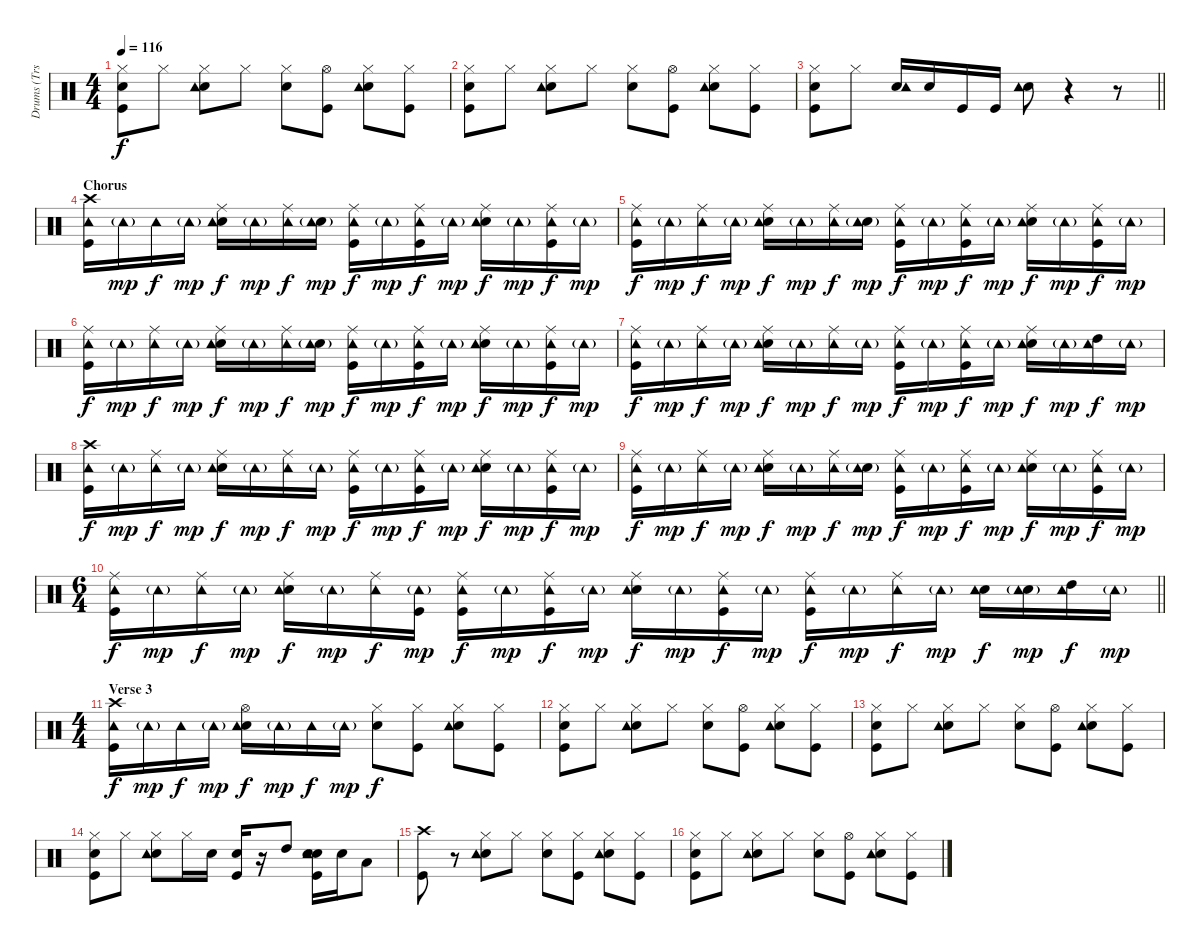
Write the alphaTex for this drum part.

\track ("Drums (Trs. 7-8A, 10A/7-8B, 10B, 12-13B)" "Drums (Trs") {mute instrument percussion}
\staff {score}
\articulation defaults
\ts (4 4)
\tempo 116
\clef neutral
\ks c
("Hi-Hat (closed)" "Electric Snare (hit)" "Kick (hit)").8{dy f} "Hi-Hat (closed)".8 ("Hi-Hat (closed)" "Electric Snare (hit)" "Tambourine (hit)").8 "Hi-Hat (closed)".8 ("Electric Snare (hit)" "Hi-Hat (closed)").8 ("Kick (hit)" "Hi-Hat (open)").8 ("Electric Snare (hit)" "Hi-Hat (closed)" "Tambourine (hit)").8 ("Kick (hit)" "Hi-Hat (closed)").8 |
("Hi-Hat (closed)" "Electric Snare (hit)" "Kick (hit)").8 "Hi-Hat (closed)".8 ("Electric Snare (hit)" "Hi-Hat (closed)" "Tambourine (hit)").8 "Hi-Hat (closed)".8 ("Hi-Hat (closed)" "Electric Snare (hit)").8 ("Hi-Hat (open)" "Kick (hit)").8 ("Electric Snare (hit)" "Hi-Hat (closed)" "Tambourine (hit)").8 ("Kick (hit)" "Hi-Hat (closed)").8 |
\barLineRight lightlight
("Hi-Hat (closed)" "Electric Snare (hit)" "Kick (hit)").8 "Hi-Hat (closed)".8 ("Electric Snare (hit)" "Tambourine (hit)").16 "Electric Snare (hit)".16 "Kick (hit)".16 "Kick (hit)".16 ("Electric Snare (hit)" "Tambourine (hit)").8 r.4 r.8 |
\section ("" "Chorus")
("Kick (hit)" "Crash high (hit)" "Tambourine (hit)").16 "Tambourine (hit)"{g}.16{dy mp} "Tambourine (hit)".16{dy f} "Tambourine (hit)"{g}.16{dy mp} ("Ride (middle)" "Electric Snare (hit)" "Tambourine (hit)").16{dy f} "Tambourine (hit)"{g}.16{dy mp} ("Ride (middle)" "Tambourine (hit)").16{dy f} ("Electric Snare (hit)" "Tambourine (hit)"{g}).16{dy mp} ("Ride (middle)" "Kick (hit)" "Tambourine (hit)").16{dy f} "Tambourine (hit)"{g}.16{dy mp} ("Kick (hit)" "Ride (middle)" "Tambourine (hit)").16{dy f} "Tambourine (hit)"{g}.16{dy mp} ("Electric Snare (hit)" "Ride (middle)" "Tambourine (hit)").16{dy f} "Tambourine (hit)"{g}.16{dy mp} ("Ride (middle)" "Kick (hit)" "Tambourine (hit)").16{dy f} "Tambourine (hit)"{g}.16{dy mp} |
("Kick (hit)" "Ride (middle)" "Tambourine (hit)").16{dy f} "Tambourine (hit)"{g}.16{dy mp} ("Ride (middle)" "Tambourine (hit)").16{dy f} "Tambourine (hit)"{g}.16{dy mp} ("Electric Snare (hit)" "Ride (middle)" "Tambourine (hit)").16{dy f} "Tambourine (hit)"{g}.16{dy mp} ("Ride (middle)" "Tambourine (hit)").16{dy f} ("Electric Snare (hit)" "Tambourine (hit)"{g}).16{dy mp} ("Ride (middle)" "Kick (hit)" "Tambourine (hit)").16{dy f} "Tambourine (hit)"{g}.16{dy mp} ("Ride (middle)" "Kick (hit)" "Tambourine (hit)").16{dy f} "Tambourine (hit)"{g}.16{dy mp} ("Ride (middle)" "Electric Snare (hit)" "Tambourine (hit)").16{dy f} "Tambourine (hit)"{g}.16{dy mp} ("Kick (hit)" "Ride (middle)" "Tambourine (hit)").16{dy f} "Tambourine (hit)"{g}.16{dy mp} |
("Kick (hit)" "Ride (middle)" "Tambourine (hit)").16{dy f} "Tambourine (hit)"{g}.16{dy mp} ("Ride (middle)" "Tambourine (hit)").16{dy f} "Tambourine (hit)"{g}.16{dy mp} ("Ride (middle)" "Electric Snare (hit)" "Tambourine (hit)").16{dy f} "Tambourine (hit)"{g}.16{dy mp} ("Ride (middle)" "Tambourine (hit)").16{dy f} ("Electric Snare (hit)" "Tambourine (hit)"{g}).16{dy mp} ("Kick (hit)" "Ride (middle)" "Tambourine (hit)").16{dy f} "Tambourine (hit)"{g}.16{dy mp} ("Kick (hit)" "Ride (middle)" "Tambourine (hit)").16{dy f} "Tambourine (hit)"{g}.16{dy mp} ("Ride (middle)" "Electric Snare (hit)" "Tambourine (hit)").16{dy f} "Tambourine (hit)"{g}.16{dy mp} ("Kick (hit)" "Ride (middle)" "Tambourine (hit)").16{dy f} "Tambourine (hit)"{g}.16{dy mp} |
("Ride (middle)" "Kick (hit)" "Tambourine (hit)").16{dy f} "Tambourine (hit)"{g}.16{dy mp} ("Ride (middle)" "Tambourine (hit)").16{dy f} "Tambourine (hit)"{g}.16{dy mp} ("Ride (middle)" "Electric Snare (hit)" "Tambourine (hit)").16{dy f} "Tambourine (hit)"{g}.16{dy mp} ("Ride (middle)" "Tambourine (hit)").16{dy f} "Tambourine (hit)"{g}.16{dy mp} ("Kick (hit)" "Ride (middle)" "Tambourine (hit)").16{dy f} "Tambourine (hit)"{g}.16{dy mp} ("Ride (middle)" "Kick (hit)" "Tambourine (hit)").16{dy f} "Tambourine (hit)"{g}.16{dy mp} ("Electric Snare (hit)" "Ride (middle)" "Tambourine (hit)").16{dy f} "Tambourine (hit)"{g}.16{dy mp} ("High Tom (hit)" "Tambourine (hit)").16{dy f} "Tambourine (hit)"{g}.16{dy mp} |
("Kick (hit)" "Crash high (hit)" "Tambourine (hit)").16{dy f} "Tambourine (hit)"{g}.16{dy mp} ("Ride (middle)" "Tambourine (hit)").16{dy f} "Tambourine (hit)"{g}.16{dy mp} ("Ride (middle)" "Electric Snare (hit)" "Tambourine (hit)").16{dy f} "Tambourine (hit)"{g}.16{dy mp} ("Ride (middle)" "Tambourine (hit)").16{dy f} "Tambourine (hit)"{g}.16{dy mp} ("Ride (middle)" "Kick (hit)" "Tambourine (hit)").16{dy f} "Tambourine (hit)"{g}.16{dy mp} ("Ride (middle)" "Kick (hit)" "Tambourine (hit)").16{dy f} "Tambourine (hit)"{g}.16{dy mp} ("Ride (middle)" "Electric Snare (hit)" "Tambourine (hit)").16{dy f} "Tambourine (hit)"{g}.16{dy mp} ("Ride (middle)" "Kick (hit)" "Tambourine (hit)").16{dy f} "Tambourine (hit)"{g}.16{dy mp} |
("Ride (middle)" "Kick (hit)" "Tambourine (hit)").16{dy f} "Tambourine (hit)"{g}.16{dy mp} ("Ride (middle)" "Tambourine (hit)").16{dy f} "Tambourine (hit)"{g}.16{dy mp} ("Ride (middle)" "Electric Snare (hit)" "Tambourine (hit)").16{dy f} "Tambourine (hit)"{g}.16{dy mp} ("Ride (middle)" "Tambourine (hit)").16{dy f} ("Electric Snare (hit)" "Tambourine (hit)"{g}).16{dy mp} ("Kick (hit)" "Ride (middle)" "Tambourine (hit)").16{dy f} "Tambourine (hit)"{g}.16{dy mp} ("Kick (hit)" "Ride (middle)" "Tambourine (hit)").16{dy f} "Tambourine (hit)"{g}.16{dy mp} ("Electric Snare (hit)" "Ride (middle)" "Tambourine (hit)").16{dy f} "Tambourine (hit)"{g}.16{dy mp} ("Kick (hit)" "Ride (middle)" "Tambourine (hit)").16{dy f} "Tambourine (hit)"{g}.16{dy mp} |
\ts (6 4)
\barLineRight lightlight
("Ride (middle)" "Kick (hit)" "Tambourine (hit)").16{dy f} "Tambourine (hit)"{g}.16{dy mp} ("Ride (middle)" "Tambourine (hit)").16{dy f} "Tambourine (hit)"{g}.16{dy mp} ("Electric Snare (hit)" "Ride (middle)" "Tambourine (hit)").16{dy f} "Tambourine (hit)"{g}.16{dy mp} ("Ride (middle)" "Tambourine (hit)").16{dy f} ("Kick (hit)" "Tambourine (hit)"{g}).16{dy mp} ("Ride (middle)" "Kick (hit)" "Tambourine (hit)").16{dy f} "Tambourine (hit)"{g}.16{dy mp} ("Kick (hit)" "Ride (middle)" "Tambourine (hit)").16{dy f} "Tambourine (hit)"{g}.16{dy mp} ("Electric Snare (hit)" "Ride (middle)" "Tambourine (hit)").16{dy f} "Tambourine (hit)"{g}.16{dy mp} ("Kick (hit)" "Ride (middle)" "Tambourine (hit)").16{dy f} "Tambourine (hit)"{g}.16{dy mp} ("Ride (middle)" "Kick (hit)" "Tambourine (hit)").16{dy f} "Tambourine (hit)"{g}.16{dy mp} ("Ride (middle)" "Tambourine (hit)").16{dy f} "Tambourine (hit)"{g}.16{dy mp} ("Electric Snare (hit)" "Tambourine (hit)").16{dy f} ("Electric Snare (hit)" "Tambourine (hit)"{g}).16{dy mp} ("High Tom (hit)" "Tambourine (hit)").16{dy f} "Tambourine (hit)"{g}.16{dy mp} |
\ts (4 4)
\section ("" "Verse 3")
("Kick (hit)" "Crash high (hit)" "Tambourine (hit)").16{dy f} "Tambourine (hit)"{g}.16{dy mp} "Tambourine (hit)".16{dy f} "Tambourine (hit)"{g}.16{dy mp} ("Electric Snare (hit)" "Hi-Hat (open)" "Tambourine (hit)").16{dy f} "Tambourine (hit)"{g}.16{dy mp} "Tambourine (hit)".16{dy f} "Tambourine (hit)"{g}.16{dy mp} ("Hi-Hat (closed)" "Electric Snare (hit)").8{dy f} ("Kick (hit)" "Hi-Hat (closed)").8 ("Electric Snare (hit)" "Hi-Hat (closed)" "Tambourine (hit)").8 ("Kick (hit)" "Hi-Hat (closed)").8 |
("Kick (hit)" "Electric Snare (hit)" "Hi-Hat (closed)").8 "Hi-Hat (closed)".8 ("Hi-Hat (closed)" "Electric Snare (hit)" "Tambourine (hit)").8 "Hi-Hat (closed)".8 ("Electric Snare (hit)" "Hi-Hat (closed)").8 ("Hi-Hat (open)" "Kick (hit)").8 ("Hi-Hat (closed)" "Electric Snare (hit)" "Tambourine (hit)").8 ("Hi-Hat (closed)" "Kick (hit)").8 |
("Electric Snare (hit)" "Hi-Hat (closed)" "Kick (hit)").8 "Hi-Hat (closed)".8 ("Electric Snare (hit)" "Hi-Hat (closed)" "Tambourine (hit)").8 "Hi-Hat (closed)".8 ("Hi-Hat (closed)" "Electric Snare (hit)").8 ("Hi-Hat (open)" "Kick (hit)").8 ("Electric Snare (hit)" "Hi-Hat (closed)" "Tambourine (hit)").8 ("Kick (hit)" "Hi-Hat (closed)").8 |
("Kick (hit)" "Hi-Hat (closed)" "Electric Snare (hit)").8 "Hi-Hat (closed)".8 ("Electric Snare (hit)" "Hi-Hat (closed)" "Tambourine (hit)").8 "Hi-Hat (closed)".16 "Electric Snare (hit)".16 ("Kick (hit)" "Electric Snare (hit)").16 r.16 "High Tom (hit)".8 ("Electric Snare (hit)" "Snare (hit) 2" "Kick (hit)" "Tambourine (hit)").16 "Electric Snare (hit)".16 "Low Tom (hit)".8 |
("Crash high (hit)" "Kick (hit)").8 r.8 ("Electric Snare (hit)" "Hi-Hat (closed)" "Tambourine (hit)").8 "Hi-Hat (closed)".8 ("Electric Snare (hit)" "Hi-Hat (closed)").8 ("Kick (hit)" "Hi-Hat (closed)").8 ("Hi-Hat (closed)" "Electric Snare (hit)" "Tambourine (hit)").8 ("Hi-Hat (closed)" "Kick (hit)").8 |
("Hi-Hat (closed)" "Kick (hit)" "Electric Snare (hit)").8 "Hi-Hat (closed)".8 ("Hi-Hat (closed)" "Electric Snare (hit)" "Tambourine (hit)").8 "Hi-Hat (closed)".8 ("Hi-Hat (closed)" "Electric Snare (hit)").8 ("Kick (hit)" "Hi-Hat (open)").8 ("Electric Snare (hit)" "Hi-Hat (closed)" "Tambourine (hit)").8 ("Kick (hit)" "Hi-Hat (closed)").8
